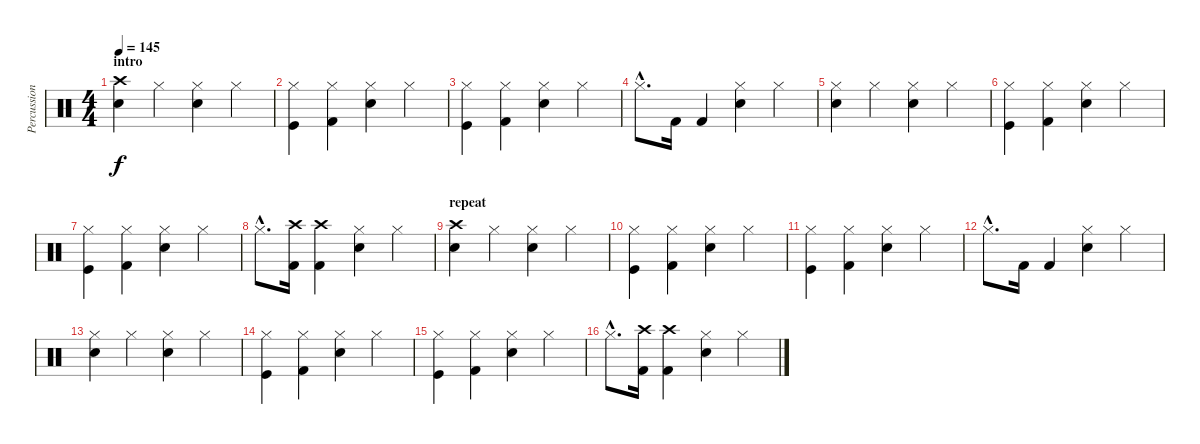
\track ("Percussion" "Percussion") {instrument percussion}
\staff {score}
\articulation defaults
\ts (4 4)
\section ("" "intro")
\tempo 145
\clef neutral
\ks c
("Crash high (hit)" "Snare (hit) 2").4{dy f} "Hi-Hat (closed)".4 ("Hi-Hat (closed)" "Snare (hit) 2").4 "Hi-Hat (closed)".4 |
("Hi-Hat (closed)" "Kick (hit)").4 ("Hi-Hat (closed)" "Kick (hit) 2").4 ("Hi-Hat (closed)" "Snare (hit) 2").4 "Hi-Hat (closed)".4 |
("Hi-Hat (closed)" "Kick (hit)").4 ("Hi-Hat (closed)" "Kick (hit) 2").4 ("Hi-Hat (closed)" "Snare (hit) 2").4 "Hi-Hat (closed)".4 |
"Hi-Hat (closed)"{hac}.8{d} "Kick (hit) 2".16 "Kick (hit) 2".4 ("Hi-Hat (closed)" "Snare (hit) 2").4 "Hi-Hat (closed)".4 |
("Hi-Hat (closed)" "Snare (hit) 2").4 "Hi-Hat (closed)".4 ("Hi-Hat (closed)" "Snare (hit) 2").4 "Hi-Hat (closed)".4 |
("Hi-Hat (closed)" "Kick (hit)").4 ("Hi-Hat (closed)" "Kick (hit) 2").4 ("Hi-Hat (closed)" "Snare (hit) 2").4 "Hi-Hat (closed)".4 |
("Hi-Hat (closed)" "Kick (hit)").4 ("Hi-Hat (closed)" "Kick (hit) 2").4 ("Hi-Hat (closed)" "Snare (hit) 2").4 "Hi-Hat (closed)".4 |
"Hi-Hat (closed)"{hac}.8{d} ("Crash high (hit)" "Kick (hit) 2").16 ("Crash high (hit)" "Kick (hit) 2").4 ("Hi-Hat (closed)" "Snare (hit) 2").4 "Hi-Hat (closed)".4 |
\section ("" "repeat")
("Crash high (hit)" "Snare (hit) 2").4 "Hi-Hat (closed)".4 ("Hi-Hat (closed)" "Snare (hit) 2").4 "Hi-Hat (closed)".4 |
("Hi-Hat (closed)" "Kick (hit)").4 ("Hi-Hat (closed)" "Kick (hit) 2").4 ("Hi-Hat (closed)" "Snare (hit) 2").4 "Hi-Hat (closed)".4 |
("Hi-Hat (closed)" "Kick (hit)").4 ("Hi-Hat (closed)" "Kick (hit) 2").4 ("Hi-Hat (closed)" "Snare (hit) 2").4 "Hi-Hat (closed)".4 |
"Hi-Hat (closed)"{hac}.8{d} "Kick (hit) 2".16 "Kick (hit) 2".4 ("Hi-Hat (closed)" "Snare (hit) 2").4 "Hi-Hat (closed)".4 |
("Hi-Hat (closed)" "Snare (hit) 2").4 "Hi-Hat (closed)".4 ("Hi-Hat (closed)" "Snare (hit) 2").4 "Hi-Hat (closed)".4 |
("Hi-Hat (closed)" "Kick (hit)").4 ("Hi-Hat (closed)" "Kick (hit) 2").4 ("Hi-Hat (closed)" "Snare (hit) 2").4 "Hi-Hat (closed)".4 |
("Hi-Hat (closed)" "Kick (hit)").4 ("Hi-Hat (closed)" "Kick (hit) 2").4 ("Hi-Hat (closed)" "Snare (hit) 2").4 "Hi-Hat (closed)".4 |
"Hi-Hat (closed)"{hac}.8{d} ("Crash high (hit)" "Kick (hit) 2").16 ("Crash high (hit)" "Kick (hit) 2").4 ("Hi-Hat (closed)" "Snare (hit) 2").4 "Hi-Hat (closed)".4
